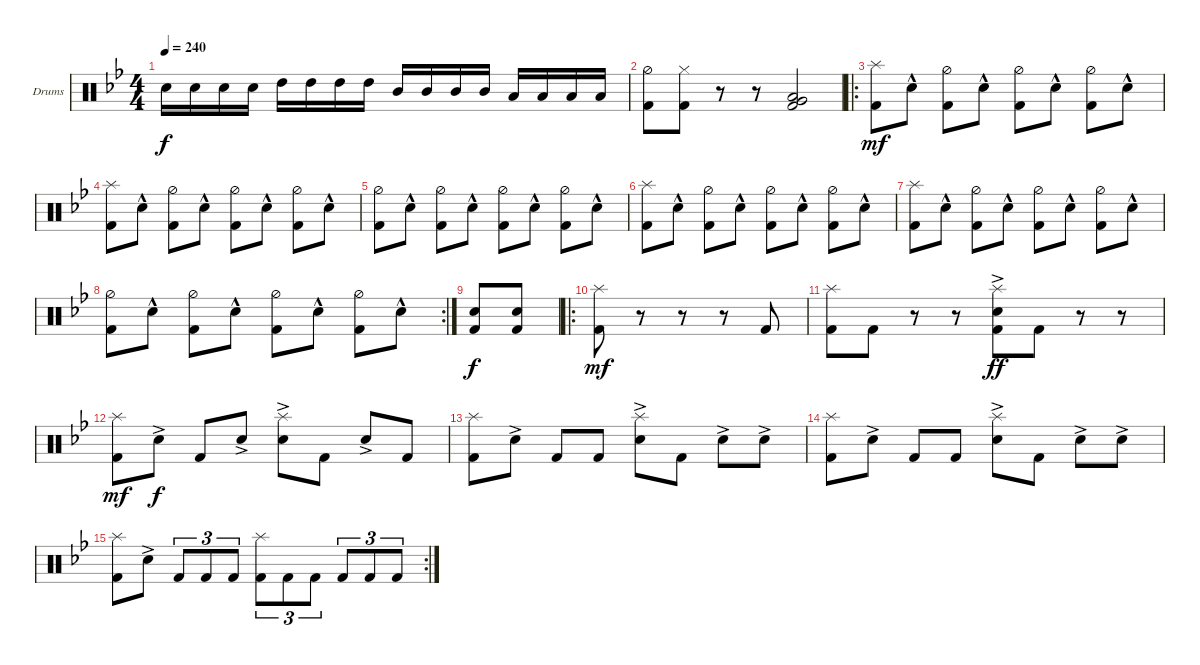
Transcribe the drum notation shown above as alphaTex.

\defaultSystemsLayout 4
\bracketExtendMode groupsimilarinstruments
\firstSystemTrackNameOrientation horizontal
\otherSystemsTrackNameOrientation horizontal
\track ("Drumkit" "Drums") {instrument percussion}
\staff {score}
\articulation defaults
\ts (4 4)
\tempo 240
\clef neutral
\ks bb "Snare (hit) 2"{acc forcenatural}.16{dy f beam Down} "Snare (hit) 2"{acc forcenatural}.16{beam Down} "Snare (hit) 2"{acc forcenatural}.16{beam Down} "Snare (hit) 2"{acc forcenatural}.16{beam Down} "High Tom (hit)"{acc forcenatural}.16{beam Down} "High Tom (hit)"{acc forcenatural}.16{beam Down} "High Tom (hit)"{acc forcenatural}.16{beam Down} "High Tom (hit)"{acc forcenatural}.16{beam Down} "Mid Tom (hit)"{acc forcenatural}.16{beam Up} "Mid Tom (hit)"{acc forcenatural}.16{beam Up} "Mid Tom (hit)"{acc forcenatural}.16{beam Up} "Mid Tom (hit)"{acc forcenatural}.16{beam Up} "Low Tom (hit)"{acc forcenatural}.16{beam Up} "Low Tom (hit)"{acc forcenatural}.16{beam Up} "Low Tom (hit)"{acc forcenatural}.16{beam Up} "Low Tom (hit)"{acc forcenatural}.16{beam Up}
|
("Hi-Hat (half)"{acc forcenatural} "Kick (hit) 2"{acc forcenatural}).8{beam Down} ("Kick (hit) 2"{acc forcenatural} "Hi-Hat (closed)"{acc forcenatural}).8{beam Down} r.8{beam Down} r.8{beam Down} ("Kick (hit) 2"{acc forcenatural} "Very Low Tom (hit)"{acc forcenatural} "Low Tom (hit)"{acc forcenatural}).2{beam Up} |
\ro
("Splash (hit)"{acc forcenatural} "Kick (hit) 2"{acc forcenatural}).8{dy mf beam Down} "Snare (hit) 2"{hac acc forcenatural}.8{beam Down} ("Hi-Hat (half)"{acc forcenatural} "Kick (hit) 2"{acc forcenatural}).8{beam Down} "Snare (hit) 2"{hac acc forcenatural}.8{beam Down} ("Hi-Hat (half)"{acc forcenatural} "Kick (hit) 2"{acc forcenatural}).8{beam Down} "Snare (hit) 2"{hac acc forcenatural}.8{beam Down} ("Kick (hit) 2"{acc forcenatural} "Hi-Hat (half)"{acc forcenatural}).8{beam Down} "Snare (hit) 2"{hac acc forcenatural}.8{beam Down} |
("Splash (hit)"{acc forcenatural} "Kick (hit) 2"{acc forcenatural}).8{beam Down} "Snare (hit) 2"{hac acc forcenatural}.8{beam Down} ("Hi-Hat (half)"{acc forcenatural} "Kick (hit) 2"{acc forcenatural}).8{beam Down} "Snare (hit) 2"{hac acc forcenatural}.8{beam Down} ("Hi-Hat (half)"{acc forcenatural} "Kick (hit) 2"{acc forcenatural}).8{beam Down} "Snare (hit) 2"{hac acc forcenatural}.8{beam Down} ("Kick (hit) 2"{acc forcenatural} "Hi-Hat (half)"{acc forcenatural}).8{beam Down} "Snare (hit) 2"{hac acc forcenatural}.8{beam Down} |
("Kick (hit) 2"{acc forcenatural} "Hi-Hat (half)"{acc forcenatural}).8{beam Down} "Snare (hit) 2"{hac acc forcenatural}.8{beam Down} ("Hi-Hat (half)"{acc forcenatural} "Kick (hit) 2"{acc forcenatural}).8{beam Down} "Snare (hit) 2"{hac acc forcenatural}.8{beam Down} ("Hi-Hat (half)"{acc forcenatural} "Kick (hit) 2"{acc forcenatural}).8{beam Down} "Snare (hit) 2"{hac acc forcenatural}.8{beam Down} ("Kick (hit) 2"{acc forcenatural} "Hi-Hat (half)"{acc forcenatural}).8{beam Down} "Snare (hit) 2"{hac acc forcenatural}.8{beam Down} |
("Splash (hit)"{acc forcenatural} "Kick (hit) 2"{acc forcenatural}).8{beam Down} "Snare (hit) 2"{hac acc forcenatural}.8{beam Down} ("Hi-Hat (half)"{acc forcenatural} "Kick (hit) 2"{acc forcenatural}).8{beam Down} "Snare (hit) 2"{hac acc forcenatural}.8{beam Down} ("Hi-Hat (half)"{acc forcenatural} "Kick (hit) 2"{acc forcenatural}).8{beam Down} "Snare (hit) 2"{hac acc forcenatural}.8{beam Down} ("Kick (hit) 2"{acc forcenatural} "Hi-Hat (half)"{acc forcenatural}).8{beam Down} "Snare (hit) 2"{hac acc forcenatural}.8{beam Down} |
("Splash (hit)"{acc forcenatural} "Kick (hit) 2"{acc forcenatural}).8{beam Down} "Snare (hit) 2"{hac acc forcenatural}.8{beam Down} ("Hi-Hat (half)"{acc forcenatural} "Kick (hit) 2"{acc forcenatural}).8{beam Down} "Snare (hit) 2"{hac acc forcenatural}.8{beam Down} ("Hi-Hat (half)"{acc forcenatural} "Kick (hit) 2"{acc forcenatural}).8{beam Down} "Snare (hit) 2"{hac acc forcenatural}.8{beam Down} ("Kick (hit) 2"{acc forcenatural} "Hi-Hat (half)"{acc forcenatural}).8{beam Down} "Snare (hit) 2"{hac acc forcenatural}.8{beam Down} |
\rc 2
("Kick (hit) 2"{acc forcenatural} "Hi-Hat (half)"{acc forcenatural}).8{beam Down} "Snare (hit) 2"{hac acc forcenatural}.8{beam Down} ("Hi-Hat (half)"{acc forcenatural} "Kick (hit) 2"{acc forcenatural}).8{beam Down} "Snare (hit) 2"{hac acc forcenatural}.8{beam Down} ("Hi-Hat (half)"{acc forcenatural} "Kick (hit) 2"{acc forcenatural}).8{beam Down} "Snare (hit) 2"{hac acc forcenatural}.8{beam Down} ("Kick (hit) 2"{acc forcenatural} "Hi-Hat (half)"{acc forcenatural}).8{beam Down} "Snare (hit) 2"{hac acc forcenatural}.8{beam Down} |
("Snare (hit) 2"{acc forcenatural} "Kick (hit) 2"{acc forcenatural}).8{dy f beam Up} ("Snare (hit) 2"{acc forcenatural} "Kick (hit) 2"{acc forcenatural}).8{beam Up} |
\ro
("Kick (hit) 2"{acc forcenatural} "Splash (hit)"{acc forcenatural}).8{dy mf beam Down} r.8{beam Down} r.8{beam Down} r.8{beam Down} "Kick (hit) 2"{acc forcenatural}.8{beam Up} |
("Kick (hit) 2"{acc forcenatural} "Splash (hit)"{acc forcenatural}).8{beam Down} "Kick (hit) 2"{acc forcenatural}.8{beam Down} r.8{beam Down} r.8{beam Down} ("Kick (hit) 2"{acc forcenatural} "Splash (hit)"{acc forcenatural} "Snare (hit) 2"{ac acc forcenatural}).8{dy ff beam Down} "Kick (hit) 2"{acc forcenatural}.8{beam Down} r.8{beam Down} r.8{beam Down} |
("Kick (hit) 2"{acc forcenatural} "Splash (hit)"{acc forcenatural}).8{dy mf beam Down} "Snare (hit) 2"{ac acc forcenatural}.8{dy f beam Down} "Kick (hit) 2"{acc forcenatural}.8{beam Up} "Snare (hit) 2"{ac acc forcenatural}.8{beam Up} ("Splash (hit)"{acc forcenatural} "Snare (hit) 2"{ac acc forcenatural}).8{beam Down} "Kick (hit) 2"{acc forcenatural}.8{beam Down} "Snare (hit) 2"{ac acc forcenatural}.8{beam Up} "Kick (hit) 2"{acc forcenatural}.8{beam Up} |
("Kick (hit) 2"{acc forcenatural} "Splash (hit)"{acc forcenatural}).8{beam Down} "Snare (hit) 2"{ac acc forcenatural}.8{beam Down} "Kick (hit) 2"{acc forcenatural}.8{beam Up} "Kick (hit) 2"{acc forcenatural}.8{beam Up} ("Splash (hit)"{acc forcenatural} "Snare (hit) 2"{ac acc forcenatural}).8{beam Down} "Kick (hit) 2"{acc forcenatural}.8{beam Down} "Snare (hit) 2"{ac acc forcenatural}.8{beam Down} "Snare (hit) 2"{ac acc forcenatural}.8{beam Down} |
("Kick (hit) 2"{acc forcenatural} "Splash (hit)"{acc forcenatural}).8{beam Down} "Snare (hit) 2"{ac acc forcenatural}.8{beam Down} "Kick (hit) 2"{acc forcenatural}.8{beam Up} "Kick (hit) 2"{acc forcenatural}.8{beam Up} ("Splash (hit)"{acc forcenatural} "Snare (hit) 2"{ac acc forcenatural}).8{beam Down} "Kick (hit) 2"{acc forcenatural}.8{beam Down} "Snare (hit) 2"{ac acc forcenatural}.8{beam Down} "Snare (hit) 2"{ac acc forcenatural}.8{beam Down} |
\rc 2
("Kick (hit) 2"{acc forcenatural} "Splash (hit)"{acc forcenatural}).8{beam Down} "Snare (hit) 2"{ac acc forcenatural}.8{beam Down} "Kick (hit) 2"{acc forcenatural}.8{tu (3 2) beam Up} "Kick (hit) 2"{acc forcenatural}.8{tu (3 2) beam Up} "Kick (hit) 2"{acc forcenatural}.8{tu (3 2) beam Up} ("Kick (hit) 2"{acc forcenatural} "Splash (hit)"{acc forcenatural}).8{tu (3 2) beam Down} "Kick (hit) 2"{acc forcenatural}.8{tu (3 2) beam Down} "Kick (hit) 2"{acc forcenatural}.8{tu (3 2) beam Down} "Kick (hit) 2"{acc forcenatural}.8{tu (3 2) beam Up} "Kick (hit) 2"{acc forcenatural}.8{tu (3 2) beam Up} "Kick (hit) 2"{acc forcenatural}.8{tu (3 2) beam Up}
